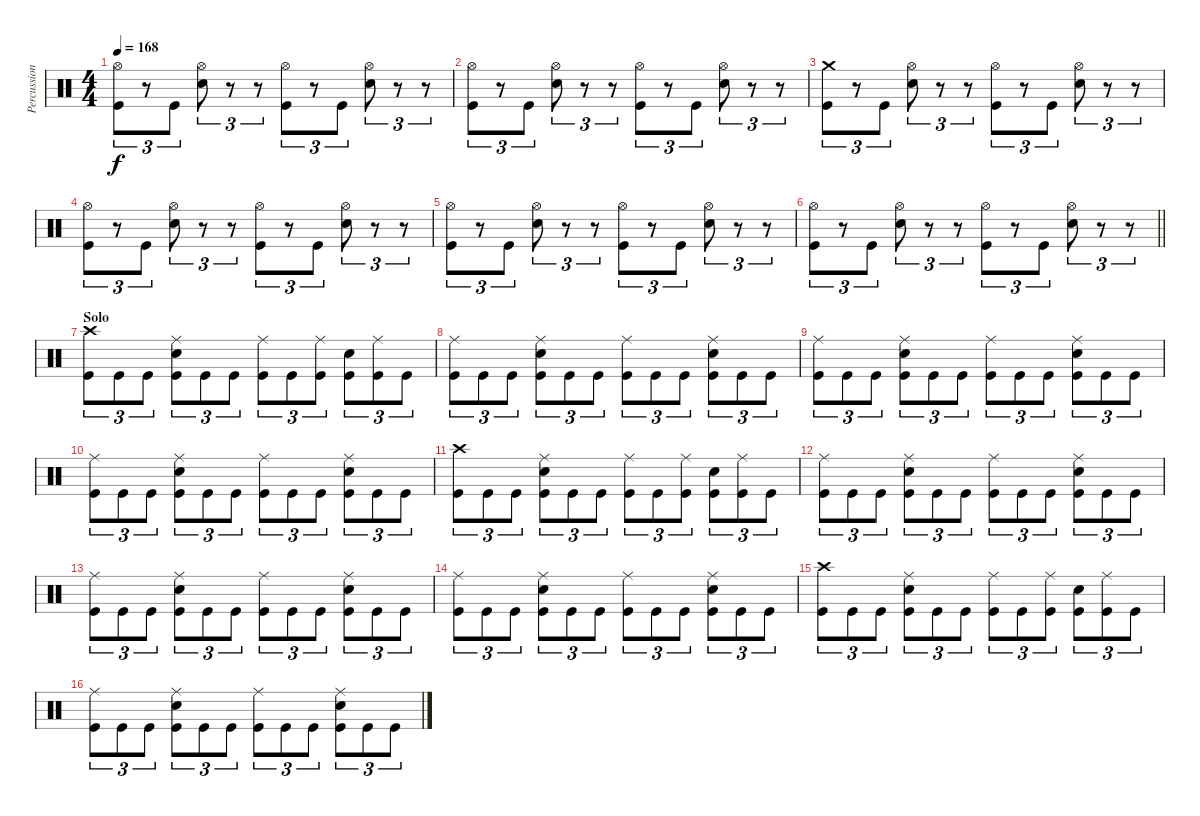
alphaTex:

\track ("Percussion" "Percussion") {instrument percussion}
\staff {score}
\articulation defaults
\ts (4 4)
\tempo 168
\clef neutral
\ks c
("Hi-Hat (open)" "Kick (hit)").8{tu (3 2) dy f} r.8{tu (3 2)} "Kick (hit)".8{tu (3 2)} ("Hi-Hat (open)" "Electric Snare (hit)").8{tu (3 2)} r.8{tu (3 2)} r.8{tu (3 2)} ("Hi-Hat (open)" "Kick (hit)").8{tu (3 2)} r.8{tu (3 2)} "Kick (hit)".8{tu (3 2)} ("Hi-Hat (open)" "Electric Snare (hit)").8{tu (3 2)} r.8{tu (3 2)} r.8{tu (3 2)} |
("Hi-Hat (open)" "Kick (hit)").8{tu (3 2)} r.8{tu (3 2)} "Kick (hit)".8{tu (3 2)} ("Hi-Hat (open)" "Electric Snare (hit)").8{tu (3 2)} r.8{tu (3 2)} r.8{tu (3 2)} ("Hi-Hat (open)" "Kick (hit)").8{tu (3 2)} r.8{tu (3 2)} "Kick (hit)".8{tu (3 2)} ("Hi-Hat (open)" "Electric Snare (hit)").8{tu (3 2)} r.8{tu (3 2)} r.8{tu (3 2)} |
("Crash medium (hit)" "Kick (hit)").8{tu (3 2)} r.8{tu (3 2)} "Kick (hit)".8{tu (3 2)} ("Hi-Hat (open)" "Electric Snare (hit)").8{tu (3 2)} r.8{tu (3 2)} r.8{tu (3 2)} ("Hi-Hat (open)" "Kick (hit)").8{tu (3 2)} r.8{tu (3 2)} "Kick (hit)".8{tu (3 2)} ("Hi-Hat (open)" "Electric Snare (hit)").8{tu (3 2)} r.8{tu (3 2)} r.8{tu (3 2)} |
("Hi-Hat (open)" "Kick (hit)").8{tu (3 2)} r.8{tu (3 2)} "Kick (hit)".8{tu (3 2)} ("Hi-Hat (open)" "Electric Snare (hit)").8{tu (3 2)} r.8{tu (3 2)} r.8{tu (3 2)} ("Hi-Hat (open)" "Kick (hit)").8{tu (3 2)} r.8{tu (3 2)} "Kick (hit)".8{tu (3 2)} ("Hi-Hat (open)" "Electric Snare (hit)").8{tu (3 2)} r.8{tu (3 2)} r.8{tu (3 2)} |
("Hi-Hat (open)" "Kick (hit)").8{tu (3 2)} r.8{tu (3 2)} "Kick (hit)".8{tu (3 2)} ("Hi-Hat (open)" "Electric Snare (hit)").8{tu (3 2)} r.8{tu (3 2)} r.8{tu (3 2)} ("Hi-Hat (open)" "Kick (hit)").8{tu (3 2)} r.8{tu (3 2)} "Kick (hit)".8{tu (3 2)} ("Hi-Hat (open)" "Electric Snare (hit)").8{tu (3 2)} r.8{tu (3 2)} r.8{tu (3 2)} |
\barLineRight lightlight
("Hi-Hat (open)" "Kick (hit)").8{tu (3 2)} r.8{tu (3 2)} "Kick (hit)".8{tu (3 2)} ("Hi-Hat (open)" "Electric Snare (hit)").8{tu (3 2)} r.8{tu (3 2)} r.8{tu (3 2)} ("Hi-Hat (open)" "Kick (hit)").8{tu (3 2)} r.8{tu (3 2)} "Kick (hit)".8{tu (3 2)} ("Hi-Hat (open)" "Electric Snare (hit)").8{tu (3 2)} r.8{tu (3 2)} r.8{tu (3 2)} |
\section ("" "Solo")
("Crash high (hit)" "Kick (hit)").8{tu (3 2)} "Kick (hit)".8{tu (3 2)} "Kick (hit)".8{tu (3 2)} ("Ride (middle)" "Electric Snare (hit)" "Kick (hit)").8{tu (3 2)} "Kick (hit)".8{tu (3 2)} "Kick (hit)".8{tu (3 2)} ("Ride (middle)" "Kick (hit)").8{tu (3 2)} "Kick (hit)".8{tu (3 2)} ("Ride (middle)" "Kick (hit)").8{tu (3 2)} ("Electric Snare (hit)" "Kick (hit)").8{tu (3 2)} ("Ride (middle)" "Kick (hit)").8{tu (3 2)} "Kick (hit)".8{tu (3 2)} |
("Ride (middle)" "Kick (hit)").8{tu (3 2)} "Kick (hit)".8{tu (3 2)} "Kick (hit)".8{tu (3 2)} ("Ride (middle)" "Electric Snare (hit)" "Kick (hit)").8{tu (3 2)} "Kick (hit)".8{tu (3 2)} "Kick (hit)".8{tu (3 2)} ("Ride (middle)" "Kick (hit)").8{tu (3 2)} "Kick (hit)".8{tu (3 2)} "Kick (hit)".8{tu (3 2)} ("Ride (middle)" "Electric Snare (hit)" "Kick (hit)").8{tu (3 2)} "Kick (hit)".8{tu (3 2)} "Kick (hit)".8{tu (3 2)} |
("Ride (middle)" "Kick (hit)").8{tu (3 2)} "Kick (hit)".8{tu (3 2)} "Kick (hit)".8{tu (3 2)} ("Ride (middle)" "Electric Snare (hit)" "Kick (hit)").8{tu (3 2)} "Kick (hit)".8{tu (3 2)} "Kick (hit)".8{tu (3 2)} ("Ride (middle)" "Kick (hit)").8{tu (3 2)} "Kick (hit)".8{tu (3 2)} "Kick (hit)".8{tu (3 2)} ("Ride (middle)" "Electric Snare (hit)" "Kick (hit)").8{tu (3 2)} "Kick (hit)".8{tu (3 2)} "Kick (hit)".8{tu (3 2)} |
("Ride (middle)" "Kick (hit)").8{tu (3 2)} "Kick (hit)".8{tu (3 2)} "Kick (hit)".8{tu (3 2)} ("Ride (middle)" "Electric Snare (hit)" "Kick (hit)").8{tu (3 2)} "Kick (hit)".8{tu (3 2)} "Kick (hit)".8{tu (3 2)} ("Ride (middle)" "Kick (hit)").8{tu (3 2)} "Kick (hit)".8{tu (3 2)} "Kick (hit)".8{tu (3 2)} ("Ride (middle)" "Electric Snare (hit)" "Kick (hit)").8{tu (3 2)} "Kick (hit)".8{tu (3 2)} "Kick (hit)".8{tu (3 2)} |
("Crash high (hit)" "Kick (hit)").8{tu (3 2)} "Kick (hit)".8{tu (3 2)} "Kick (hit)".8{tu (3 2)} ("Ride (middle)" "Electric Snare (hit)" "Kick (hit)").8{tu (3 2)} "Kick (hit)".8{tu (3 2)} "Kick (hit)".8{tu (3 2)} ("Ride (middle)" "Kick (hit)").8{tu (3 2)} "Kick (hit)".8{tu (3 2)} ("Ride (middle)" "Kick (hit)").8{tu (3 2)} ("Electric Snare (hit)" "Kick (hit)").8{tu (3 2)} ("Ride (middle)" "Kick (hit)").8{tu (3 2)} "Kick (hit)".8{tu (3 2)} |
("Ride (middle)" "Kick (hit)").8{tu (3 2)} "Kick (hit)".8{tu (3 2)} "Kick (hit)".8{tu (3 2)} ("Ride (middle)" "Electric Snare (hit)" "Kick (hit)").8{tu (3 2)} "Kick (hit)".8{tu (3 2)} "Kick (hit)".8{tu (3 2)} ("Ride (middle)" "Kick (hit)").8{tu (3 2)} "Kick (hit)".8{tu (3 2)} "Kick (hit)".8{tu (3 2)} ("Ride (middle)" "Electric Snare (hit)" "Kick (hit)").8{tu (3 2)} "Kick (hit)".8{tu (3 2)} "Kick (hit)".8{tu (3 2)} |
("Ride (middle)" "Kick (hit)").8{tu (3 2)} "Kick (hit)".8{tu (3 2)} "Kick (hit)".8{tu (3 2)} ("Ride (middle)" "Electric Snare (hit)" "Kick (hit)").8{tu (3 2)} "Kick (hit)".8{tu (3 2)} "Kick (hit)".8{tu (3 2)} ("Ride (middle)" "Kick (hit)").8{tu (3 2)} "Kick (hit)".8{tu (3 2)} "Kick (hit)".8{tu (3 2)} ("Ride (middle)" "Electric Snare (hit)" "Kick (hit)").8{tu (3 2)} "Kick (hit)".8{tu (3 2)} "Kick (hit)".8{tu (3 2)} |
("Ride (middle)" "Kick (hit)").8{tu (3 2)} "Kick (hit)".8{tu (3 2)} "Kick (hit)".8{tu (3 2)} ("Ride (middle)" "Electric Snare (hit)" "Kick (hit)").8{tu (3 2)} "Kick (hit)".8{tu (3 2)} "Kick (hit)".8{tu (3 2)} ("Ride (middle)" "Kick (hit)").8{tu (3 2)} "Kick (hit)".8{tu (3 2)} "Kick (hit)".8{tu (3 2)} ("Ride (middle)" "Electric Snare (hit)" "Kick (hit)").8{tu (3 2)} "Kick (hit)".8{tu (3 2)} "Kick (hit)".8{tu (3 2)} |
("Crash high (hit)" "Kick (hit)").8{tu (3 2)} "Kick (hit)".8{tu (3 2)} "Kick (hit)".8{tu (3 2)} ("Ride (middle)" "Electric Snare (hit)" "Kick (hit)").8{tu (3 2)} "Kick (hit)".8{tu (3 2)} "Kick (hit)".8{tu (3 2)} ("Ride (middle)" "Kick (hit)").8{tu (3 2)} "Kick (hit)".8{tu (3 2)} ("Ride (middle)" "Kick (hit)").8{tu (3 2)} ("Electric Snare (hit)" "Kick (hit)").8{tu (3 2)} ("Ride (middle)" "Kick (hit)").8{tu (3 2)} "Kick (hit)".8{tu (3 2)} |
("Ride (middle)" "Kick (hit)").8{tu (3 2)} "Kick (hit)".8{tu (3 2)} "Kick (hit)".8{tu (3 2)} ("Ride (middle)" "Electric Snare (hit)" "Kick (hit)").8{tu (3 2)} "Kick (hit)".8{tu (3 2)} "Kick (hit)".8{tu (3 2)} ("Ride (middle)" "Kick (hit)").8{tu (3 2)} "Kick (hit)".8{tu (3 2)} "Kick (hit)".8{tu (3 2)} ("Ride (middle)" "Electric Snare (hit)" "Kick (hit)").8{tu (3 2)} "Kick (hit)".8{tu (3 2)} "Kick (hit)".8{tu (3 2)}
